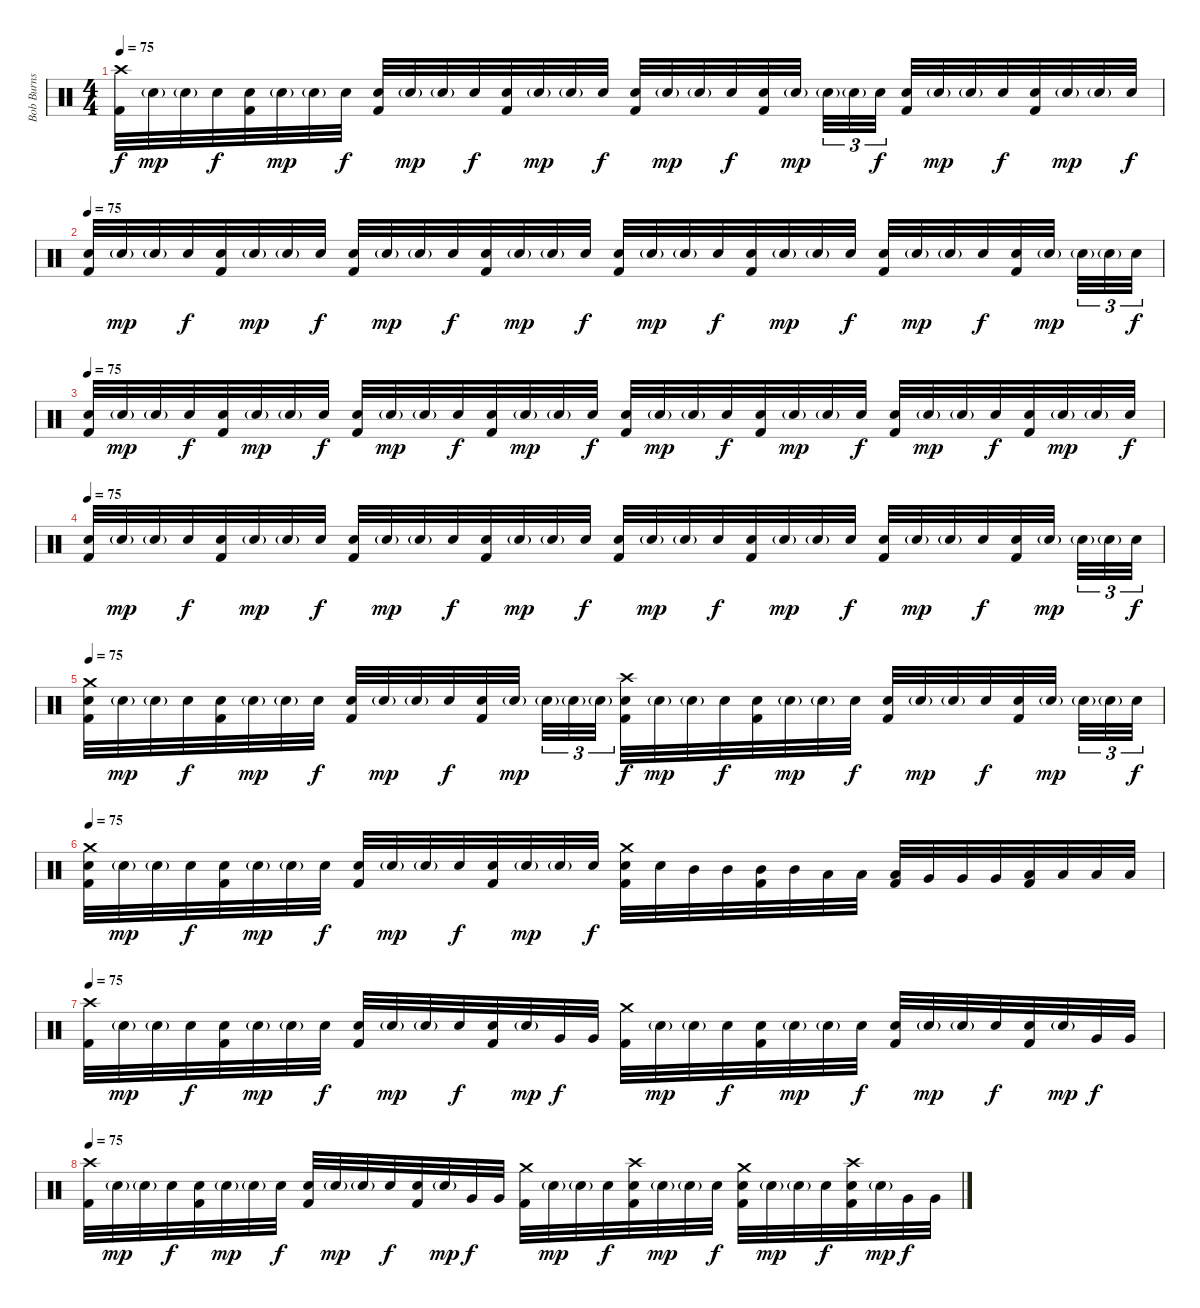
\track ("Bob Burns (drums and percussion)" "Bob Burns ") {instrument percussion}
\staff {score}
\articulation defaults
\ts (4 4)
\tempo 75
\clef neutral
\ks c
("Crash high (hit)" "Kick (hit) 2").32{dy f} "Electric Snare (hit)"{g}.32{dy mp} "Electric Snare (hit)"{g}.32 "Electric Snare (hit)".32{dy f} ("Electric Snare (hit)" "Kick (hit) 2").32 "Electric Snare (hit)"{g}.32{dy mp} "Electric Snare (hit)"{g}.32 "Electric Snare (hit)".32{dy f} ("Electric Snare (hit)" "Kick (hit) 2").32 "Electric Snare (hit)"{g}.32{dy mp} "Electric Snare (hit)"{g}.32 "Electric Snare (hit)".32{dy f} ("Electric Snare (hit)" "Kick (hit) 2").32 "Electric Snare (hit)"{g}.32{dy mp} "Electric Snare (hit)"{g}.32 "Electric Snare (hit)".32{dy f} ("Electric Snare (hit)" "Kick (hit) 2").32 "Electric Snare (hit)"{g}.32{dy mp} "Electric Snare (hit)"{g}.32 "Electric Snare (hit)".32{dy f} ("Electric Snare (hit)" "Kick (hit) 2").32 "Electric Snare (hit)"{g}.32{dy mp beam splitsecondary} "Electric Snare (hit)"{g}.32{tu (3 2)} "Electric Snare (hit)"{g}.32{tu (3 2)} "Electric Snare (hit)".32{tu (3 2) dy f} ("Electric Snare (hit)" "Kick (hit) 2").32 "Electric Snare (hit)"{g}.32{dy mp} "Electric Snare (hit)"{g}.32 "Electric Snare (hit)".32{dy f} ("Electric Snare (hit)" "Kick (hit) 2").32 "Electric Snare (hit)"{g}.32{dy mp} "Electric Snare (hit)"{g}.32 "Electric Snare (hit)".32{dy f} |
\tempo 75
("Electric Snare (hit)" "Kick (hit) 2").32 "Electric Snare (hit)"{g}.32{dy mp} "Electric Snare (hit)"{g}.32 "Electric Snare (hit)".32{dy f} ("Electric Snare (hit)" "Kick (hit) 2").32 "Electric Snare (hit)"{g}.32{dy mp} "Electric Snare (hit)"{g}.32 "Electric Snare (hit)".32{dy f} ("Electric Snare (hit)" "Kick (hit) 2").32 "Electric Snare (hit)"{g}.32{dy mp} "Electric Snare (hit)"{g}.32 "Electric Snare (hit)".32{dy f} ("Electric Snare (hit)" "Kick (hit) 2").32 "Electric Snare (hit)"{g}.32{dy mp} "Electric Snare (hit)"{g}.32 "Electric Snare (hit)".32{dy f} ("Electric Snare (hit)" "Kick (hit) 2").32 "Electric Snare (hit)"{g}.32{dy mp} "Electric Snare (hit)"{g}.32 "Electric Snare (hit)".32{dy f} ("Electric Snare (hit)" "Kick (hit) 2").32 "Electric Snare (hit)"{g}.32{dy mp} "Electric Snare (hit)"{g}.32 "Electric Snare (hit)".32{dy f} ("Electric Snare (hit)" "Kick (hit) 2").32 "Electric Snare (hit)"{g}.32{dy mp} "Electric Snare (hit)"{g}.32 "Electric Snare (hit)".32{dy f} ("Electric Snare (hit)" "Kick (hit) 2").32 "Electric Snare (hit)"{g}.32{dy mp beam splitsecondary} "Electric Snare (hit)"{g}.32{tu (3 2)} "Electric Snare (hit)"{g}.32{tu (3 2)} "Electric Snare (hit)".32{tu (3 2) dy f} |
\tempo 75
("Electric Snare (hit)" "Kick (hit) 2").32 "Electric Snare (hit)"{g}.32{dy mp} "Electric Snare (hit)"{g}.32 "Electric Snare (hit)".32{dy f} ("Electric Snare (hit)" "Kick (hit) 2").32 "Electric Snare (hit)"{g}.32{dy mp} "Electric Snare (hit)"{g}.32 "Electric Snare (hit)".32{dy f} ("Electric Snare (hit)" "Kick (hit) 2").32 "Electric Snare (hit)"{g}.32{dy mp} "Electric Snare (hit)"{g}.32 "Electric Snare (hit)".32{dy f} ("Electric Snare (hit)" "Kick (hit) 2").32 "Electric Snare (hit)"{g}.32{dy mp} "Electric Snare (hit)"{g}.32 "Electric Snare (hit)".32{dy f} ("Electric Snare (hit)" "Kick (hit) 2").32 "Electric Snare (hit)"{g}.32{dy mp} "Electric Snare (hit)"{g}.32 "Electric Snare (hit)".32{dy f} ("Electric Snare (hit)" "Kick (hit) 2").32 "Electric Snare (hit)"{g}.32{dy mp} "Electric Snare (hit)"{g}.32 "Electric Snare (hit)".32{dy f} ("Electric Snare (hit)" "Kick (hit) 2").32 "Electric Snare (hit)"{g}.32{dy mp} "Electric Snare (hit)"{g}.32 "Electric Snare (hit)".32{dy f} ("Electric Snare (hit)" "Kick (hit) 2").32 "Electric Snare (hit)"{g}.32{dy mp} "Electric Snare (hit)"{g}.32 "Electric Snare (hit)".32{dy f} |
\tempo 75
("Electric Snare (hit)" "Kick (hit) 2").32 "Electric Snare (hit)"{g}.32{dy mp} "Electric Snare (hit)"{g}.32 "Electric Snare (hit)".32{dy f} ("Electric Snare (hit)" "Kick (hit) 2").32 "Electric Snare (hit)"{g}.32{dy mp} "Electric Snare (hit)"{g}.32 "Electric Snare (hit)".32{dy f} ("Electric Snare (hit)" "Kick (hit) 2").32 "Electric Snare (hit)"{g}.32{dy mp} "Electric Snare (hit)"{g}.32 "Electric Snare (hit)".32{dy f} ("Electric Snare (hit)" "Kick (hit) 2").32 "Electric Snare (hit)"{g}.32{dy mp} "Electric Snare (hit)"{g}.32 "Electric Snare (hit)".32{dy f} ("Electric Snare (hit)" "Kick (hit) 2").32 "Electric Snare (hit)"{g}.32{dy mp} "Electric Snare (hit)"{g}.32 "Electric Snare (hit)".32{dy f} ("Electric Snare (hit)" "Kick (hit) 2").32 "Electric Snare (hit)"{g}.32{dy mp} "Electric Snare (hit)"{g}.32 "Electric Snare (hit)".32{dy f} ("Electric Snare (hit)" "Kick (hit) 2").32 "Electric Snare (hit)"{g}.32{dy mp} "Electric Snare (hit)"{g}.32 "Electric Snare (hit)".32{dy f} ("Electric Snare (hit)" "Kick (hit) 2").32 "Electric Snare (hit)"{g}.32{dy mp beam splitsecondary} "Electric Snare (hit)"{g}.32{tu (3 2)} "Electric Snare (hit)"{g}.32{tu (3 2)} "Electric Snare (hit)".32{tu (3 2) dy f} |
\tempo 75
("Crash medium (hit)" "Electric Snare (hit)" "Kick (hit) 2").32 "Electric Snare (hit)"{g}.32{dy mp} "Electric Snare (hit)"{g}.32 "Electric Snare (hit)".32{dy f} ("Electric Snare (hit)" "Kick (hit) 2").32 "Electric Snare (hit)"{g}.32{dy mp} "Electric Snare (hit)"{g}.32 "Electric Snare (hit)".32{dy f} ("Electric Snare (hit)" "Kick (hit) 2").32 "Electric Snare (hit)"{g}.32{dy mp} "Electric Snare (hit)"{g}.32 "Electric Snare (hit)".32{dy f} ("Electric Snare (hit)" "Kick (hit) 2").32 "Electric Snare (hit)"{g}.32{dy mp beam splitsecondary} "Electric Snare (hit)"{g}.32{tu (3 2)} "Electric Snare (hit)"{g}.32{tu (3 2)} "Electric Snare (hit)"{g}.32{tu (3 2)} ("Crash high (hit)" "Electric Snare (hit)" "Kick (hit) 2").32{dy f} "Electric Snare (hit)"{g}.32{dy mp} "Electric Snare (hit)"{g}.32 "Electric Snare (hit)".32{dy f} ("Electric Snare (hit)" "Kick (hit) 2").32 "Electric Snare (hit)"{g}.32{dy mp} "Electric Snare (hit)"{g}.32 "Electric Snare (hit)".32{dy f} ("Electric Snare (hit)" "Kick (hit) 2").32 "Electric Snare (hit)"{g}.32{dy mp} "Electric Snare (hit)"{g}.32 "Electric Snare (hit)".32{dy f} ("Electric Snare (hit)" "Kick (hit) 2").32 "Electric Snare (hit)"{g}.32{dy mp beam splitsecondary} "Electric Snare (hit)"{g}.32{tu (3 2)} "Electric Snare (hit)"{g}.32{tu (3 2)} "Electric Snare (hit)".32{tu (3 2) dy f} |
\tempo 75
("Crash medium (hit)" "Electric Snare (hit)" "Kick (hit) 2").32 "Electric Snare (hit)"{g}.32{dy mp} "Electric Snare (hit)"{g}.32 "Electric Snare (hit)".32{dy f} ("Electric Snare (hit)" "Kick (hit) 2").32 "Electric Snare (hit)"{g}.32{dy mp} "Electric Snare (hit)"{g}.32 "Electric Snare (hit)".32{dy f} ("Electric Snare (hit)" "Kick (hit) 2").32 "Electric Snare (hit)"{g}.32{dy mp} "Electric Snare (hit)"{g}.32 "Electric Snare (hit)".32{dy f} ("Electric Snare (hit)" "Kick (hit) 2").32 "Electric Snare (hit)"{g}.32{dy mp} "Electric Snare (hit)"{g}.32 "Electric Snare (hit)".32{dy f} ("Crash medium (hit)" "Electric Snare (hit)" "Kick (hit) 2").32 "Electric Snare (hit)".32 "Mid Tom (hit)".32 "Mid Tom (hit)".32 ("Mid Tom (hit)" "Kick (hit) 2").32 "Mid Tom (hit)".32 "Low Tom (hit)".32 "Low Tom (hit)".32 ("Low Tom (hit)" "Kick (hit) 2").32 "Very Low Tom (hit)".32 "Very Low Tom (hit)".32 "Very Low Tom (hit)".32 ("Low Floor Tom (hit)" "Kick (hit) 2").32 "Low Floor Tom (hit)".32 "Low Floor Tom (hit)".32 "Low Floor Tom (hit)".32 |
\tempo 75
("Crash high (hit)" "Kick (hit) 2").32 "Electric Snare (hit)"{g}.32{dy mp} "Electric Snare (hit)"{g}.32 "Electric Snare (hit)".32{dy f} ("Electric Snare (hit)" "Kick (hit) 2").32 "Electric Snare (hit)"{g}.32{dy mp} "Electric Snare (hit)"{g}.32 "Electric Snare (hit)".32{dy f} ("Electric Snare (hit)" "Kick (hit) 2").32 "Electric Snare (hit)"{g}.32{dy mp} "Electric Snare (hit)"{g}.32 "Electric Snare (hit)".32{dy f} ("Electric Snare (hit)" "Kick (hit) 2").32 "Electric Snare (hit)"{g}.32{dy mp} "Very Low Tom (hit)".32{dy f} "Very Low Tom (hit)".32 ("Crash medium (hit)" "Kick (hit) 2").32 "Electric Snare (hit)"{g}.32{dy mp} "Electric Snare (hit)"{g}.32 "Electric Snare (hit)".32{dy f} ("Electric Snare (hit)" "Kick (hit) 2").32 "Electric Snare (hit)"{g}.32{dy mp} "Electric Snare (hit)"{g}.32 "Electric Snare (hit)".32{dy f} ("Electric Snare (hit)" "Kick (hit) 2").32 "Electric Snare (hit)"{g}.32{dy mp} "Electric Snare (hit)"{g}.32 "Electric Snare (hit)".32{dy f} ("Electric Snare (hit)" "Kick (hit) 2").32 "Electric Snare (hit)"{g}.32{dy mp} "Very Low Tom (hit)".32{dy f} "Very Low Tom (hit)".32 |
\tempo 75
("Crash high (hit)" "Kick (hit) 2").32 "Electric Snare (hit)"{g}.32{dy mp} "Electric Snare (hit)"{g}.32 "Electric Snare (hit)".32{dy f} ("Electric Snare (hit)" "Kick (hit) 2").32 "Electric Snare (hit)"{g}.32{dy mp} "Electric Snare (hit)"{g}.32 "Electric Snare (hit)".32{dy f} ("Electric Snare (hit)" "Kick (hit) 2").32 "Electric Snare (hit)"{g}.32{dy mp} "Electric Snare (hit)"{g}.32 "Electric Snare (hit)".32{dy f} ("Electric Snare (hit)" "Kick (hit) 2").32 "Electric Snare (hit)"{g}.32{dy mp} "Very Low Tom (hit)".32{dy f} "Very Low Tom (hit)".32 ("Crash medium (hit)" "Kick (hit) 2").32 "Electric Snare (hit)"{g}.32{dy mp} "Electric Snare (hit)"{g}.32 "Electric Snare (hit)".32{dy f} ("Crash high (hit)" "Electric Snare (hit)" "Kick (hit) 2").32 "Electric Snare (hit)"{g}.32{dy mp} "Electric Snare (hit)"{g}.32 "Electric Snare (hit)".32{dy f} ("Crash medium (hit)" "Electric Snare (hit)" "Kick (hit) 2").32 "Electric Snare (hit)"{g}.32{dy mp} "Electric Snare (hit)"{g}.32 "Electric Snare (hit)".32{dy f} ("Crash high (hit)" "Electric Snare (hit)" "Kick (hit) 2").32 "Electric Snare (hit)"{g}.32{dy mp} "Very Low Tom (hit)".32{dy f} "Very Low Tom (hit)".32
